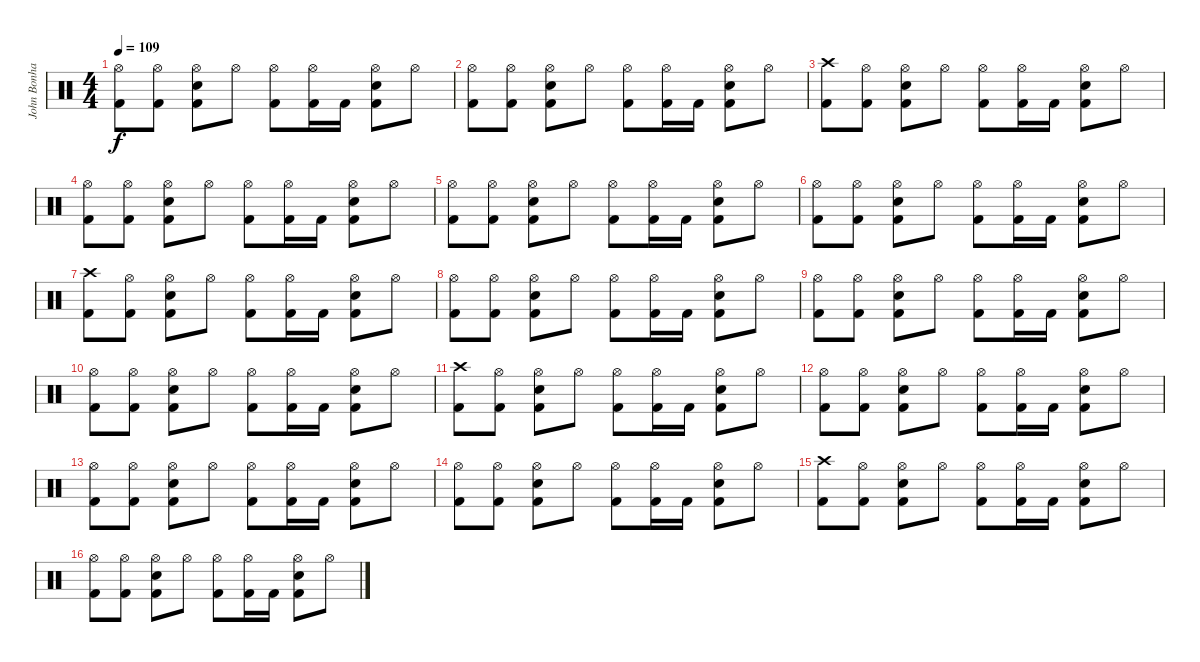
\track ("John Bonham" "John Bonha") {instrument percussion}
\staff {score}
\articulation defaults
\ts (4 4)
\tempo 109
\clef neutral
\ks c
("Kick (hit) 2" "Hi-Hat (open)").8{dy f} ("Kick (hit) 2" "Hi-Hat (open)").8 ("Kick (hit) 2" "Snare (hit) 2" "Hi-Hat (open)").8 "Hi-Hat (open)".8 ("Kick (hit) 2" "Hi-Hat (open)").8 ("Kick (hit) 2" "Hi-Hat (open)").16 "Kick (hit) 2".16 ("Kick (hit) 2" "Electric Snare (hit)" "Hi-Hat (open)").8 "Hi-Hat (open)".8 |
("Kick (hit) 2" "Hi-Hat (open)").8 ("Kick (hit) 2" "Hi-Hat (open)").8 ("Kick (hit) 2" "Snare (hit) 2" "Hi-Hat (open)").8 "Hi-Hat (open)".8 ("Kick (hit) 2" "Hi-Hat (open)").8 ("Kick (hit) 2" "Hi-Hat (open)").16 "Kick (hit) 2".16 ("Kick (hit) 2" "Electric Snare (hit)" "Hi-Hat (open)").8 "Hi-Hat (open)".8 |
("Kick (hit) 2" "Crash high (hit)").8 ("Kick (hit) 2" "Hi-Hat (open)").8 ("Electric Snare (hit)" "Kick (hit) 2" "Hi-Hat (open)").8 "Hi-Hat (open)".8 ("Kick (hit) 2" "Hi-Hat (open)").8 ("Kick (hit) 2" "Hi-Hat (open)").16 "Kick (hit) 2".16 ("Kick (hit) 2" "Snare (hit) 2" "Hi-Hat (open)").8 "Hi-Hat (open)".8 |
("Kick (hit) 2" "Hi-Hat (open)").8 ("Kick (hit) 2" "Hi-Hat (open)").8 ("Kick (hit) 2" "Snare (hit) 2" "Hi-Hat (open)").8 "Hi-Hat (open)".8 ("Kick (hit) 2" "Hi-Hat (open)").8 ("Kick (hit) 2" "Hi-Hat (open)").16 "Kick (hit) 2".16 ("Kick (hit) 2" "Electric Snare (hit)" "Hi-Hat (open)").8 "Hi-Hat (open)".8 |
("Kick (hit) 2" "Hi-Hat (open)").8 ("Kick (hit) 2" "Hi-Hat (open)").8 ("Kick (hit) 2" "Snare (hit) 2" "Hi-Hat (open)").8 "Hi-Hat (open)".8 ("Kick (hit) 2" "Hi-Hat (open)").8 ("Kick (hit) 2" "Hi-Hat (open)").16 "Kick (hit) 2".16 ("Kick (hit) 2" "Electric Snare (hit)" "Hi-Hat (open)").8 "Hi-Hat (open)".8 |
("Kick (hit) 2" "Hi-Hat (open)").8 ("Kick (hit) 2" "Hi-Hat (open)").8 ("Kick (hit) 2" "Snare (hit) 2" "Hi-Hat (open)").8 "Hi-Hat (open)".8 ("Kick (hit) 2" "Hi-Hat (open)").8 ("Kick (hit) 2" "Hi-Hat (open)").16 "Kick (hit) 2".16 ("Kick (hit) 2" "Electric Snare (hit)" "Hi-Hat (open)").8 "Hi-Hat (open)".8 |
("Kick (hit) 2" "Crash high (hit)").8 ("Kick (hit) 2" "Hi-Hat (open)").8 ("Electric Snare (hit)" "Kick (hit) 2" "Hi-Hat (open)").8 "Hi-Hat (open)".8 ("Kick (hit) 2" "Hi-Hat (open)").8 ("Kick (hit) 2" "Hi-Hat (open)").16 "Kick (hit) 2".16 ("Kick (hit) 2" "Snare (hit) 2" "Hi-Hat (open)").8 "Hi-Hat (open)".8 |
("Kick (hit) 2" "Hi-Hat (open)").8 ("Kick (hit) 2" "Hi-Hat (open)").8 ("Kick (hit) 2" "Snare (hit) 2" "Hi-Hat (open)").8 "Hi-Hat (open)".8 ("Kick (hit) 2" "Hi-Hat (open)").8 ("Kick (hit) 2" "Hi-Hat (open)").16 "Kick (hit) 2".16 ("Kick (hit) 2" "Electric Snare (hit)" "Hi-Hat (open)").8 "Hi-Hat (open)".8 |
("Kick (hit) 2" "Hi-Hat (open)").8 ("Kick (hit) 2" "Hi-Hat (open)").8 ("Kick (hit) 2" "Snare (hit) 2" "Hi-Hat (open)").8 "Hi-Hat (open)".8 ("Kick (hit) 2" "Hi-Hat (open)").8 ("Kick (hit) 2" "Hi-Hat (open)").16 "Kick (hit) 2".16 ("Kick (hit) 2" "Electric Snare (hit)" "Hi-Hat (open)").8 "Hi-Hat (open)".8 |
("Kick (hit) 2" "Hi-Hat (open)").8 ("Kick (hit) 2" "Hi-Hat (open)").8 ("Kick (hit) 2" "Snare (hit) 2" "Hi-Hat (open)").8 "Hi-Hat (open)".8 ("Kick (hit) 2" "Hi-Hat (open)").8 ("Kick (hit) 2" "Hi-Hat (open)").16 "Kick (hit) 2".16 ("Kick (hit) 2" "Electric Snare (hit)" "Hi-Hat (open)").8 "Hi-Hat (open)".8 |
("Kick (hit) 2" "Crash high (hit)").8 ("Kick (hit) 2" "Hi-Hat (open)").8 ("Electric Snare (hit)" "Kick (hit) 2" "Hi-Hat (open)").8 "Hi-Hat (open)".8 ("Kick (hit) 2" "Hi-Hat (open)").8 ("Kick (hit) 2" "Hi-Hat (open)").16 "Kick (hit) 2".16 ("Kick (hit) 2" "Snare (hit) 2" "Hi-Hat (open)").8 "Hi-Hat (open)".8 |
("Kick (hit) 2" "Hi-Hat (open)").8 ("Kick (hit) 2" "Hi-Hat (open)").8 ("Kick (hit) 2" "Snare (hit) 2" "Hi-Hat (open)").8 "Hi-Hat (open)".8 ("Kick (hit) 2" "Hi-Hat (open)").8 ("Kick (hit) 2" "Hi-Hat (open)").16 "Kick (hit) 2".16 ("Kick (hit) 2" "Electric Snare (hit)" "Hi-Hat (open)").8 "Hi-Hat (open)".8 |
("Kick (hit) 2" "Hi-Hat (open)").8 ("Kick (hit) 2" "Hi-Hat (open)").8 ("Kick (hit) 2" "Snare (hit) 2" "Hi-Hat (open)").8 "Hi-Hat (open)".8 ("Kick (hit) 2" "Hi-Hat (open)").8 ("Kick (hit) 2" "Hi-Hat (open)").16 "Kick (hit) 2".16 ("Kick (hit) 2" "Electric Snare (hit)" "Hi-Hat (open)").8 "Hi-Hat (open)".8 |
("Kick (hit) 2" "Hi-Hat (open)").8 ("Kick (hit) 2" "Hi-Hat (open)").8 ("Kick (hit) 2" "Snare (hit) 2" "Hi-Hat (open)").8 "Hi-Hat (open)".8 ("Kick (hit) 2" "Hi-Hat (open)").8 ("Kick (hit) 2" "Hi-Hat (open)").16 "Kick (hit) 2".16 ("Kick (hit) 2" "Electric Snare (hit)" "Hi-Hat (open)").8 "Hi-Hat (open)".8 |
("Kick (hit) 2" "Crash high (hit)").8 ("Kick (hit) 2" "Hi-Hat (open)").8 ("Electric Snare (hit)" "Kick (hit) 2" "Hi-Hat (open)").8 "Hi-Hat (open)".8 ("Kick (hit) 2" "Hi-Hat (open)").8 ("Kick (hit) 2" "Hi-Hat (open)").16 "Kick (hit) 2".16 ("Kick (hit) 2" "Snare (hit) 2" "Hi-Hat (open)").8 "Hi-Hat (open)".8 |
("Kick (hit) 2" "Hi-Hat (open)").8 ("Kick (hit) 2" "Hi-Hat (open)").8 ("Kick (hit) 2" "Snare (hit) 2" "Hi-Hat (open)").8 "Hi-Hat (open)".8 ("Kick (hit) 2" "Hi-Hat (open)").8 ("Kick (hit) 2" "Hi-Hat (open)").16 "Kick (hit) 2".16 ("Kick (hit) 2" "Electric Snare (hit)" "Hi-Hat (open)").8 "Hi-Hat (open)".8
